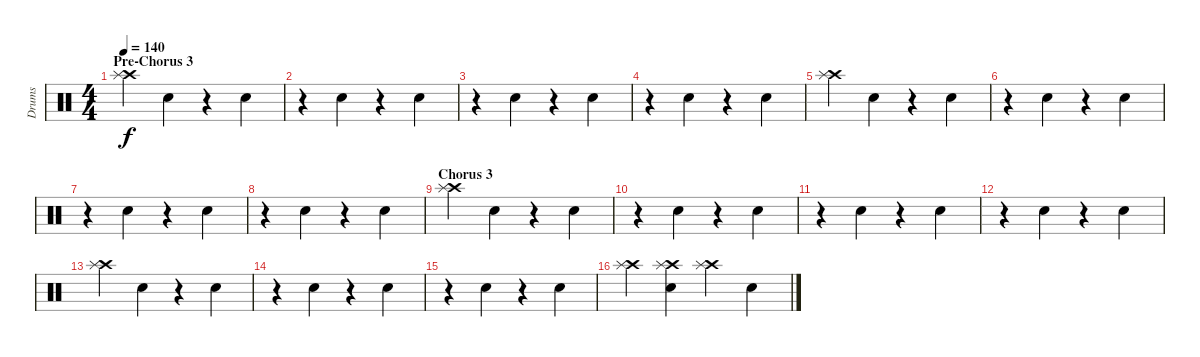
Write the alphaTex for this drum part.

\track ("Drums" "Drums") {instrument percussion}
\staff {score}
\articulation defaults
\ts (4 4)
\section ("" "Pre-Chorus 3")
\tempo 140
\clef neutral
\ks c
("Crash high (hit)" "Splash (hit)").4{dy f} "Snare (hit) 2".4 r.4 "Snare (hit) 2".4 |
r.4 "Snare (hit) 2".4 r.4 "Snare (hit) 2".4 |
r.4 "Snare (hit) 2".4 r.4 "Snare (hit) 2".4 |
r.4 "Snare (hit) 2".4 r.4 "Snare (hit) 2".4 |
("Crash high (hit)" "Splash (hit)").4 "Snare (hit) 2".4 r.4 "Snare (hit) 2".4 |
r.4 "Snare (hit) 2".4 r.4 "Snare (hit) 2".4 |
r.4 "Snare (hit) 2".4 r.4 "Snare (hit) 2".4 |
r.4 "Snare (hit) 2".4 r.4 "Snare (hit) 2".4 |
\section ("" "Chorus 3")
("Crash high (hit)" "Splash (hit)").4 "Snare (hit) 2".4 r.4 "Snare (hit) 2".4 |
r.4 "Snare (hit) 2".4 r.4 "Snare (hit) 2".4 |
r.4 "Snare (hit) 2".4 r.4 "Snare (hit) 2".4 |
r.4 "Snare (hit) 2".4 r.4 "Snare (hit) 2".4 |
("Crash high (hit)" "Splash (hit)").4 "Snare (hit) 2".4 r.4 "Snare (hit) 2".4 |
r.4 "Snare (hit) 2".4 r.4 "Snare (hit) 2".4 |
r.4 "Snare (hit) 2".4 r.4 "Snare (hit) 2".4 |
("Crash high (hit)" "Splash (hit)").4 ("Snare (hit) 2" "Crash high (hit)" "Splash (hit)").4 ("Crash high (hit)" "Splash (hit)").4 "Snare (hit) 2".4
